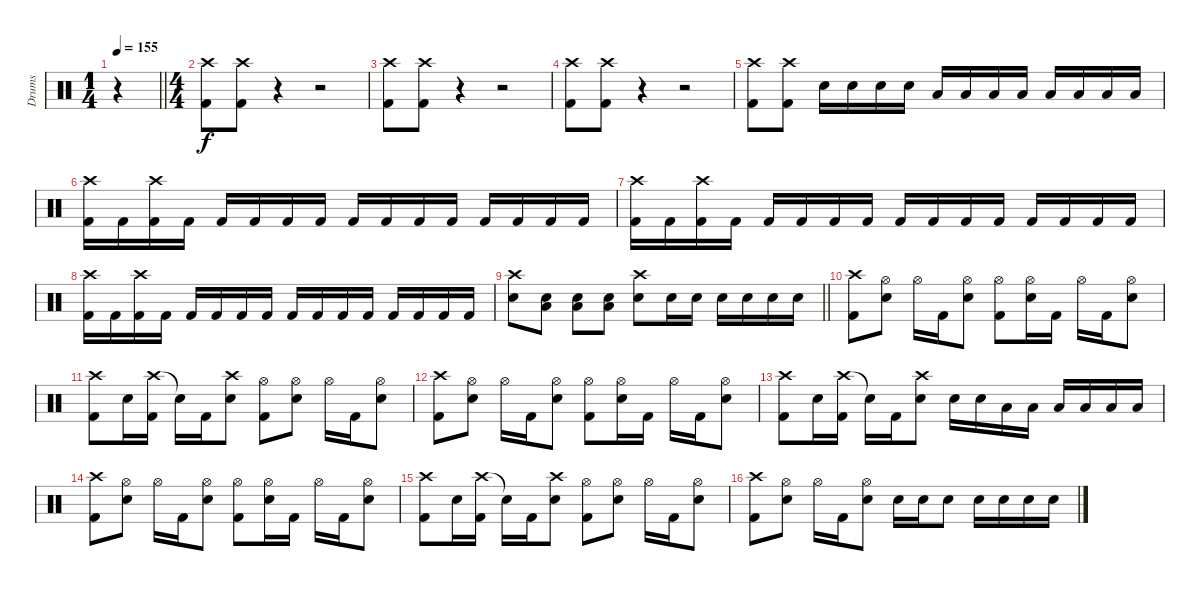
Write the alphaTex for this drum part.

\track ("Drums" "Drums") {instrument percussion}
\staff {score}
\articulation defaults
\ts (1 4)
\tempo 155
\clef neutral
\barLineRight lightlight
\ks c
r.4{dy f} |
\ts (4 4)
("Crash high (hit)" "Kick (hit) 2").8 ("Crash high (hit)" "Kick (hit) 2").8 r.4 r.2 |
("Crash high (hit)" "Kick (hit) 2").8 ("Crash high (hit)" "Kick (hit) 2").8 r.4 r.2 |
("Crash high (hit)" "Kick (hit) 2").8 ("Crash high (hit)" "Kick (hit) 2").8 r.4 r.2 |
("Crash high (hit)" "Kick (hit) 2").8 ("Crash high (hit)" "Kick (hit) 2").8 "Snare (hit) 2".16 "Snare (hit) 2".16 "Snare (hit) 2".16 "Snare (hit) 2".16 "Low Tom (hit)".16 "Low Tom (hit)".16 "Low Tom (hit)".16 "Low Tom (hit)".16 "Low Floor Tom (hit)".16 "Low Floor Tom (hit)".16 "Low Floor Tom (hit)".16 "Low Floor Tom (hit)".16 |
("Crash high (hit)" "Kick (hit) 2").16 "Kick (hit) 2".16 ("Crash high (hit)" "Kick (hit) 2").16 "Kick (hit) 2".16 "Kick (hit) 2".16 "Kick (hit) 2".16 "Kick (hit) 2".16 "Kick (hit) 2".16 "Kick (hit) 2".16 "Kick (hit) 2".16 "Kick (hit) 2".16 "Kick (hit) 2".16 "Kick (hit) 2".16 "Kick (hit) 2".16 "Kick (hit) 2".16 "Kick (hit) 2".16 |
("Crash high (hit)" "Kick (hit) 2").16 "Kick (hit) 2".16 ("Crash high (hit)" "Kick (hit) 2").16 "Kick (hit) 2".16 "Kick (hit) 2".16 "Kick (hit) 2".16 "Kick (hit) 2".16 "Kick (hit) 2".16 "Kick (hit) 2".16 "Kick (hit) 2".16 "Kick (hit) 2".16 "Kick (hit) 2".16 "Kick (hit) 2".16 "Kick (hit) 2".16 "Kick (hit) 2".16 "Kick (hit) 2".16 |
("Crash high (hit)" "Kick (hit) 2").16 "Kick (hit) 2".16 ("Crash high (hit)" "Kick (hit) 2").16 "Kick (hit) 2".16 "Kick (hit) 2".16 "Kick (hit) 2".16 "Kick (hit) 2".16 "Kick (hit) 2".16 "Kick (hit) 2".16 "Kick (hit) 2".16 "Kick (hit) 2".16 "Kick (hit) 2".16 "Kick (hit) 2".16 "Kick (hit) 2".16 "Kick (hit) 2".16 "Kick (hit) 2".16 |
\barLineRight lightlight
("Crash high (hit)" "Snare (hit) 2").8 ("Snare (hit) 2" "Low Tom (hit)").8 ("Snare (hit) 2" "Low Tom (hit)").8 ("Snare (hit) 2" "Low Tom (hit)").8 ("Crash high (hit)" "Snare (hit) 2").8 "Snare (hit) 2".16 "Snare (hit) 2".16 "Snare (hit) 2".16 "Snare (hit) 2".16 "Snare (hit) 2".16 "Snare (hit) 2".16 |
("Crash high (hit)" "Kick (hit) 2").8 ("Hi-Hat (open)" "Snare (hit) 2").8 "Hi-Hat (open)".16 "Kick (hit) 2".16 ("Hi-Hat (open)" "Snare (hit) 2").8 ("Hi-Hat (open)" "Kick (hit) 2").8 ("Hi-Hat (open)" "Snare (hit) 2").16 "Kick (hit) 2".16 "Hi-Hat (open)".16 "Kick (hit) 2".16 ("Hi-Hat (open)" "Snare (hit) 2").8 |
("Crash high (hit)" "Kick (hit) 2").8 "Snare (hit) 2".16 ("Crash high (hit)" "Kick (hit) 2").16 "Snare (hit)"{t}.16 "Kick (hit) 2".16 ("Crash high (hit)" "Snare (hit) 2").8 ("Hi-Hat (open)" "Kick (hit) 2").8 ("Hi-Hat (open)" "Snare (hit) 2").8 "Hi-Hat (open)".16 "Kick (hit) 2".16 ("Hi-Hat (open)" "Snare (hit) 2").8 |
("Crash high (hit)" "Kick (hit) 2").8 ("Hi-Hat (open)" "Snare (hit) 2").8 "Hi-Hat (open)".16 "Kick (hit) 2".16 ("Hi-Hat (open)" "Snare (hit) 2").8 ("Hi-Hat (open)" "Kick (hit) 2").8 ("Hi-Hat (open)" "Snare (hit) 2").16 "Kick (hit) 2".16 "Hi-Hat (open)".16 "Kick (hit) 2".16 ("Hi-Hat (open)" "Snare (hit) 2").8 |
("Crash high (hit)" "Kick (hit) 2").8 "Snare (hit) 2".16 ("Crash high (hit)" "Kick (hit) 2").16 "Snare (hit)"{t}.16 "Kick (hit) 2".16 ("Crash high (hit)" "Snare (hit) 2").8 "Snare (hit) 2".16 "Snare (hit) 2".16 "Low Tom (hit)".16 "Low Tom (hit)".16 "Low Tom (hit)".16 "Low Tom (hit)".16 "Low Floor Tom (hit)".16 "Low Floor Tom (hit)".16 |
("Crash high (hit)" "Kick (hit) 2").8 ("Hi-Hat (open)" "Snare (hit) 2").8 "Hi-Hat (open)".16 "Kick (hit) 2".16 ("Hi-Hat (open)" "Snare (hit) 2").8 ("Hi-Hat (open)" "Kick (hit) 2").8 ("Hi-Hat (open)" "Snare (hit) 2").16 "Kick (hit) 2".16 "Hi-Hat (open)".16 "Kick (hit) 2".16 ("Hi-Hat (open)" "Snare (hit) 2").8 |
("Crash high (hit)" "Kick (hit) 2").8 "Snare (hit) 2".16 ("Crash high (hit)" "Kick (hit) 2").16 "Snare (hit)"{t}.16 "Kick (hit) 2".16 ("Crash high (hit)" "Snare (hit) 2").8 ("Hi-Hat (open)" "Kick (hit) 2").8 ("Hi-Hat (open)" "Snare (hit) 2").8 "Hi-Hat (open)".16 "Kick (hit) 2".16 ("Hi-Hat (open)" "Snare (hit) 2").8 |
("Crash high (hit)" "Kick (hit) 2").8 ("Hi-Hat (open)" "Snare (hit) 2").8 "Hi-Hat (open)".16 "Kick (hit) 2".16 ("Hi-Hat (open)" "Snare (hit) 2").8 "Snare (hit) 2".16 "Snare (hit) 2".16 "Snare (hit) 2".8 "Snare (hit) 2".16 "Snare (hit) 2".16 "Snare (hit) 2".16 "Snare (hit) 2".16
